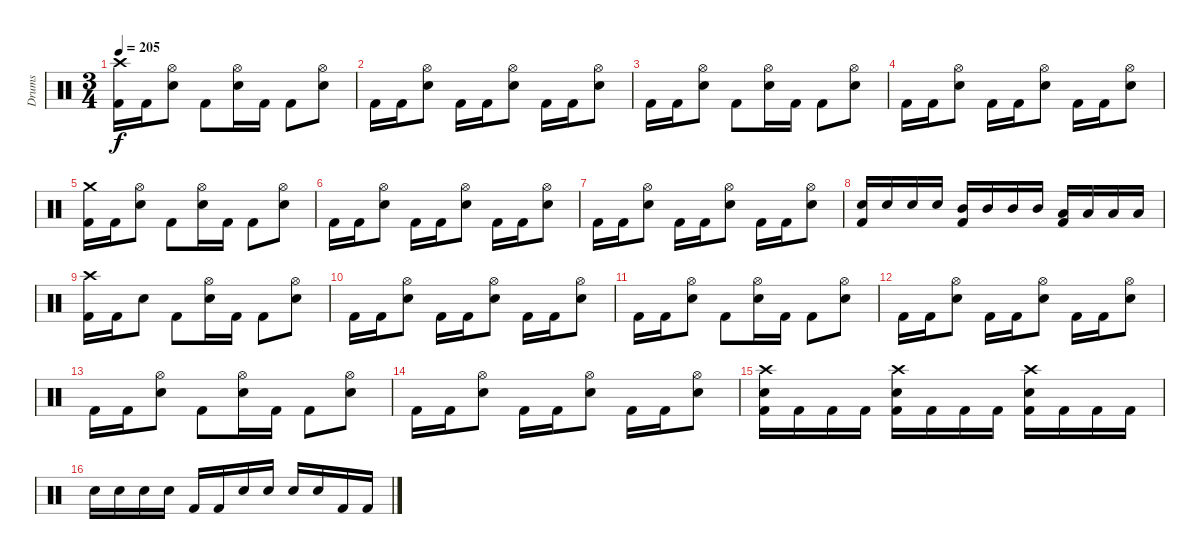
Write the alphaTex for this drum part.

\track ("Drums" "Drums") {instrument percussion}
\staff {score}
\articulation defaults
\ts (3 4)
\tempo 205
\clef neutral
\ks c
("Crash high (hit)" "Kick (hit) 2").16{dy f} "Kick (hit) 2".16 ("Hi-Hat (open)" "Snare (hit) 2").8 "Kick (hit) 2".8 ("Hi-Hat (open)" "Snare (hit) 2").16 "Kick (hit) 2".16 "Kick (hit) 2".8 ("Hi-Hat (open)" "Snare (hit) 2").8 |
"Kick (hit) 2".16 "Kick (hit) 2".16 ("Hi-Hat (open)" "Snare (hit) 2").8 "Kick (hit) 2".16 "Kick (hit) 2".16 ("Hi-Hat (open)" "Snare (hit) 2").8 "Kick (hit) 2".16 "Kick (hit) 2".16 ("Hi-Hat (open)" "Snare (hit) 2").8 |
"Kick (hit) 2".16 "Kick (hit) 2".16 ("Hi-Hat (open)" "Snare (hit) 2").8 "Kick (hit) 2".8 ("Hi-Hat (open)" "Snare (hit) 2").16 "Kick (hit) 2".16 "Kick (hit) 2".8 ("Hi-Hat (open)" "Snare (hit) 2").8 |
"Kick (hit) 2".16 "Kick (hit) 2".16 ("Hi-Hat (open)" "Snare (hit) 2").8 "Kick (hit) 2".16 "Kick (hit) 2".16 ("Hi-Hat (open)" "Snare (hit) 2").8 "Kick (hit) 2".16 "Kick (hit) 2".16 ("Hi-Hat (open)" "Snare (hit) 2").8 |
("Crash medium (hit)" "Kick (hit) 2").16 "Kick (hit) 2".16 ("Hi-Hat (open)" "Snare (hit) 2").8 "Kick (hit) 2".8 ("Hi-Hat (open)" "Snare (hit) 2").16 "Kick (hit) 2".16 "Kick (hit) 2".8 ("Hi-Hat (open)" "Snare (hit) 2").8 |
"Kick (hit) 2".16 "Kick (hit) 2".16 ("Hi-Hat (open)" "Snare (hit) 2").8 "Kick (hit) 2".16 "Kick (hit) 2".16 ("Hi-Hat (open)" "Snare (hit) 2").8 "Kick (hit) 2".16 "Kick (hit) 2".16 ("Hi-Hat (open)" "Snare (hit) 2").8 |
"Kick (hit) 2".16 "Kick (hit) 2".16 ("Hi-Hat (open)" "Snare (hit) 2").8 "Kick (hit) 2".16 "Kick (hit) 2".16 ("Hi-Hat (open)" "Snare (hit) 2").8 "Kick (hit) 2".16 "Kick (hit) 2".16 ("Hi-Hat (open)" "Snare (hit) 2").8 |
("Snare (hit) 2" "Kick (hit) 2").16 "Snare (hit) 2".16 "Snare (hit) 2".16 "Snare (hit) 2".16 ("Mid Tom (hit)" "Kick (hit) 2").16 "Mid Tom (hit)".16 "Mid Tom (hit)".16 "Mid Tom (hit)".16 ("Low Tom (hit)" "Kick (hit) 2").16 "Low Tom (hit)".16 "Low Tom (hit)".16 "Low Tom (hit)".16 |
("Crash high (hit)" "Kick (hit) 2").16 "Kick (hit) 2".16 "Snare (hit) 2".8 "Kick (hit) 2".8 ("Hi-Hat (open)" "Snare (hit) 2").16 "Kick (hit) 2".16 "Kick (hit) 2".8 ("Hi-Hat (open)" "Snare (hit) 2").8 |
"Kick (hit) 2".16 "Kick (hit) 2".16 ("Hi-Hat (open)" "Snare (hit) 2").8 "Kick (hit) 2".16 "Kick (hit) 2".16 ("Hi-Hat (open)" "Snare (hit) 2").8 "Kick (hit) 2".16 "Kick (hit) 2".16 ("Hi-Hat (open)" "Snare (hit) 2").8 |
"Kick (hit) 2".16 "Kick (hit) 2".16 ("Hi-Hat (open)" "Snare (hit) 2").8 "Kick (hit) 2".8 ("Hi-Hat (open)" "Snare (hit) 2").16 "Kick (hit) 2".16 "Kick (hit) 2".8 ("Hi-Hat (open)" "Snare (hit) 2").8 |
"Kick (hit) 2".16 "Kick (hit) 2".16 ("Hi-Hat (open)" "Snare (hit) 2").8 "Kick (hit) 2".16 "Kick (hit) 2".16 ("Hi-Hat (open)" "Snare (hit) 2").8 "Kick (hit) 2".16 "Kick (hit) 2".16 ("Hi-Hat (open)" "Snare (hit) 2").8 |
"Kick (hit) 2".16 "Kick (hit) 2".16 ("Hi-Hat (open)" "Snare (hit) 2").8 "Kick (hit) 2".8 ("Hi-Hat (open)" "Snare (hit) 2").16 "Kick (hit) 2".16 "Kick (hit) 2".8 ("Hi-Hat (open)" "Snare (hit) 2").8 |
"Kick (hit) 2".16 "Kick (hit) 2".16 ("Hi-Hat (open)" "Snare (hit) 2").8 "Kick (hit) 2".16 "Kick (hit) 2".16 ("Hi-Hat (open)" "Snare (hit) 2").8 "Kick (hit) 2".16 "Kick (hit) 2".16 ("Hi-Hat (open)" "Snare (hit) 2").8 |
("Crash high (hit)" "Snare (hit) 2" "Kick (hit) 2").16 "Kick (hit) 2".16 "Kick (hit) 2".16 "Kick (hit) 2".16 ("Crash high (hit)" "Snare (hit) 2" "Kick (hit) 2").16 "Kick (hit) 2".16 "Kick (hit) 2".16 "Kick (hit) 2".16 ("Crash high (hit)" "Snare (hit) 2" "Kick (hit) 2").16 "Kick (hit) 2".16 "Kick (hit) 2".16 "Kick (hit) 2".16 |
"Snare (hit) 2".16 "Snare (hit) 2".16 "Snare (hit) 2".16 "Snare (hit) 2".16 "Kick (hit) 2".16 "Kick (hit) 2".16 "Snare (hit) 2".16 "Snare (hit) 2".16 "Snare (hit) 2".16 "Snare (hit) 2".16 "Kick (hit) 2".16 "Kick (hit) 2".16
